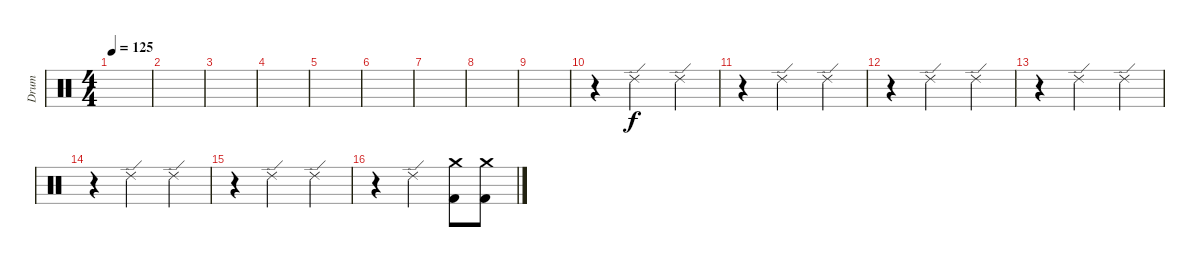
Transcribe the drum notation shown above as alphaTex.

\track ("Drum" "Drum") {instrument percussion}
\staff
\articulation defaults
\ts (4 4)
\tempo 125
\clef neutral
\ks c
|
|
|
|
|
|
|
|
|
r.4 "Ride (edge) 2".2 "Ride (edge) 2".4 |
r.4 "Ride (edge) 2".2 "Ride (edge) 2".4 |
r.4 "Ride (edge) 2".2 "Ride (edge) 2".4 |
r.4 "Ride (edge) 2".2 "Ride (edge) 2".4 |
r.4 "Ride (edge) 2".2 "Ride (edge) 2".4 |
r.4 "Ride (edge) 2".2 "Ride (edge) 2".4 |
r.4 "Ride (edge) 2".2 ("Crash medium (hit)" "Kick (hit) 2").8 ("Crash medium (hit)" "Kick (hit) 2").8
